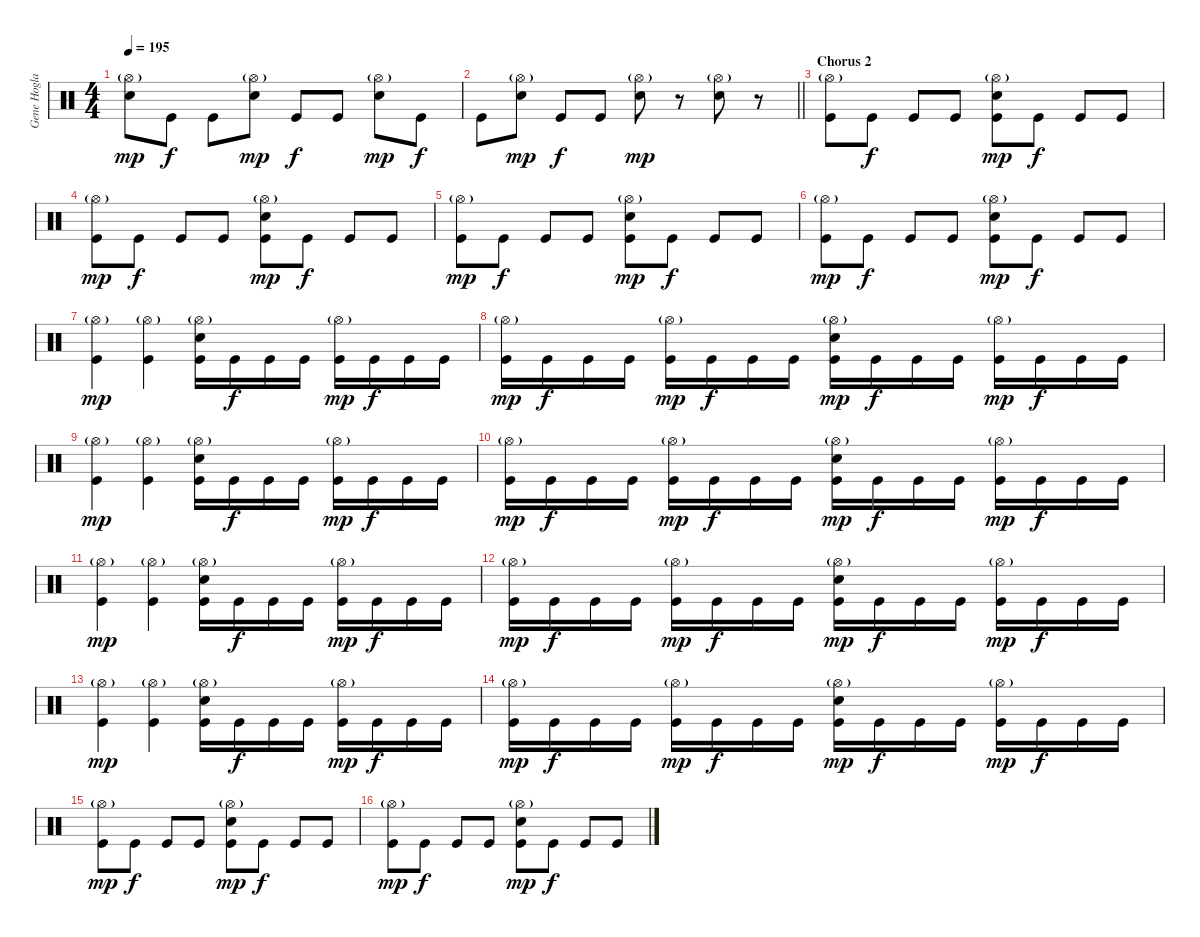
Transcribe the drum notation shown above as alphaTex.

\track ("Gene Hoglan" "Gene Hogla") {instrument percussion}
\staff {score}
\articulation defaults
\ts (4 4)
\tempo 195
\clef neutral
\ks c
("Hi-Hat (open)"{g} "Electric Snare (hit)").8{dy mp} "Kick (hit)".8{dy f} "Kick (hit)".8 ("Hi-Hat (open)"{g} "Electric Snare (hit)").8{dy mp} "Kick (hit)".8{dy f} "Kick (hit)".8 ("Hi-Hat (open)"{g} "Electric Snare (hit)").8{dy mp} "Kick (hit)".8{dy f} |
\barLineRight lightlight "Kick (hit)".8
("Hi-Hat (open)"{g} "Electric Snare (hit)").8{dy mp} "Kick (hit)".8{dy f} "Kick (hit)".8 ("Hi-Hat (open)"{g} "Electric Snare (hit)").8{dy mp} r.8 ("Hi-Hat (open)"{g} "Electric Snare (hit)").8 r.8 |
\section ("" "Chorus 2")
("Hi-Hat (open)"{g} "Kick (hit)").8 "Kick (hit)".8{dy f} "Kick (hit)".8 "Kick (hit)".8 ("Hi-Hat (open)"{g} "Electric Snare (hit)" "Kick (hit)").8{dy mp} "Kick (hit)".8{dy f} "Kick (hit)".8 "Kick (hit)".8 |
("Hi-Hat (open)"{g} "Kick (hit)").8{dy mp} "Kick (hit)".8{dy f} "Kick (hit)".8 "Kick (hit)".8 ("Hi-Hat (open)"{g} "Electric Snare (hit)" "Kick (hit)").8{dy mp} "Kick (hit)".8{dy f} "Kick (hit)".8 "Kick (hit)".8 |
("Hi-Hat (open)"{g} "Kick (hit)").8{dy mp} "Kick (hit)".8{dy f} "Kick (hit)".8 "Kick (hit)".8 ("Hi-Hat (open)"{g} "Electric Snare (hit)" "Kick (hit)").8{dy mp} "Kick (hit)".8{dy f} "Kick (hit)".8 "Kick (hit)".8 |
("Hi-Hat (open)"{g} "Kick (hit)").8{dy mp} "Kick (hit)".8{dy f} "Kick (hit)".8 "Kick (hit)".8 ("Hi-Hat (open)"{g} "Electric Snare (hit)" "Kick (hit)").8{dy mp} "Kick (hit)".8{dy f} "Kick (hit)".8 "Kick (hit)".8 |
("Hi-Hat (open)"{g} "Kick (hit)").4{dy mp} ("Hi-Hat (open)"{g} "Kick (hit)").4 ("Hi-Hat (open)"{g} "Electric Snare (hit)" "Kick (hit)").16 "Kick (hit)".16{dy f} "Kick (hit)".16 "Kick (hit)".16 ("Hi-Hat (open)"{g} "Kick (hit)").16{dy mp} "Kick (hit)".16{dy f} "Kick (hit)".16 "Kick (hit)".16 |
("Hi-Hat (open)"{g} "Kick (hit)").16{dy mp} "Kick (hit)".16{dy f} "Kick (hit)".16 "Kick (hit)".16 ("Hi-Hat (open)"{g} "Kick (hit)").16{dy mp} "Kick (hit)".16{dy f} "Kick (hit)".16 "Kick (hit)".16 ("Hi-Hat (open)"{g} "Electric Snare (hit)" "Kick (hit)").16{dy mp} "Kick (hit)".16{dy f} "Kick (hit)".16 "Kick (hit)".16 ("Hi-Hat (open)"{g} "Kick (hit)").16{dy mp} "Kick (hit)".16{dy f} "Kick (hit)".16 "Kick (hit)".16 |
("Hi-Hat (open)"{g} "Kick (hit)").4{dy mp} ("Hi-Hat (open)"{g} "Kick (hit)").4 ("Hi-Hat (open)"{g} "Electric Snare (hit)" "Kick (hit)").16 "Kick (hit)".16{dy f} "Kick (hit)".16 "Kick (hit)".16 ("Hi-Hat (open)"{g} "Kick (hit)").16{dy mp} "Kick (hit)".16{dy f} "Kick (hit)".16 "Kick (hit)".16 |
("Hi-Hat (open)"{g} "Kick (hit)").16{dy mp} "Kick (hit)".16{dy f} "Kick (hit)".16 "Kick (hit)".16 ("Hi-Hat (open)"{g} "Kick (hit)").16{dy mp} "Kick (hit)".16{dy f} "Kick (hit)".16 "Kick (hit)".16 ("Hi-Hat (open)"{g} "Electric Snare (hit)" "Kick (hit)").16{dy mp} "Kick (hit)".16{dy f} "Kick (hit)".16 "Kick (hit)".16 ("Hi-Hat (open)"{g} "Kick (hit)").16{dy mp} "Kick (hit)".16{dy f} "Kick (hit)".16 "Kick (hit)".16 |
("Hi-Hat (open)"{g} "Kick (hit)").4{dy mp} ("Hi-Hat (open)"{g} "Kick (hit)").4 ("Hi-Hat (open)"{g} "Electric Snare (hit)" "Kick (hit)").16 "Kick (hit)".16{dy f} "Kick (hit)".16 "Kick (hit)".16 ("Hi-Hat (open)"{g} "Kick (hit)").16{dy mp} "Kick (hit)".16{dy f} "Kick (hit)".16 "Kick (hit)".16 |
("Hi-Hat (open)"{g} "Kick (hit)").16{dy mp} "Kick (hit)".16{dy f} "Kick (hit)".16 "Kick (hit)".16 ("Hi-Hat (open)"{g} "Kick (hit)").16{dy mp} "Kick (hit)".16{dy f} "Kick (hit)".16 "Kick (hit)".16 ("Hi-Hat (open)"{g} "Electric Snare (hit)" "Kick (hit)").16{dy mp} "Kick (hit)".16{dy f} "Kick (hit)".16 "Kick (hit)".16 ("Hi-Hat (open)"{g} "Kick (hit)").16{dy mp} "Kick (hit)".16{dy f} "Kick (hit)".16 "Kick (hit)".16 |
("Hi-Hat (open)"{g} "Kick (hit)").4{dy mp} ("Hi-Hat (open)"{g} "Kick (hit)").4 ("Hi-Hat (open)"{g} "Electric Snare (hit)" "Kick (hit)").16 "Kick (hit)".16{dy f} "Kick (hit)".16 "Kick (hit)".16 ("Hi-Hat (open)"{g} "Kick (hit)").16{dy mp} "Kick (hit)".16{dy f} "Kick (hit)".16 "Kick (hit)".16 |
("Hi-Hat (open)"{g} "Kick (hit)").16{dy mp} "Kick (hit)".16{dy f} "Kick (hit)".16 "Kick (hit)".16 ("Hi-Hat (open)"{g} "Kick (hit)").16{dy mp} "Kick (hit)".16{dy f} "Kick (hit)".16 "Kick (hit)".16 ("Hi-Hat (open)"{g} "Electric Snare (hit)" "Kick (hit)").16{dy mp} "Kick (hit)".16{dy f} "Kick (hit)".16 "Kick (hit)".16 ("Hi-Hat (open)"{g} "Kick (hit)").16{dy mp} "Kick (hit)".16{dy f} "Kick (hit)".16 "Kick (hit)".16 |
("Hi-Hat (open)"{g} "Kick (hit)").8{dy mp} "Kick (hit)".8{dy f} "Kick (hit)".8 "Kick (hit)".8 ("Hi-Hat (open)"{g} "Electric Snare (hit)" "Kick (hit)").8{dy mp} "Kick (hit)".8{dy f} "Kick (hit)".8 "Kick (hit)".8 |
("Hi-Hat (open)"{g} "Kick (hit)").8{dy mp} "Kick (hit)".8{dy f} "Kick (hit)".8 "Kick (hit)".8 ("Hi-Hat (open)"{g} "Electric Snare (hit)" "Kick (hit)").8{dy mp} "Kick (hit)".8{dy f} "Kick (hit)".8 "Kick (hit)".8
